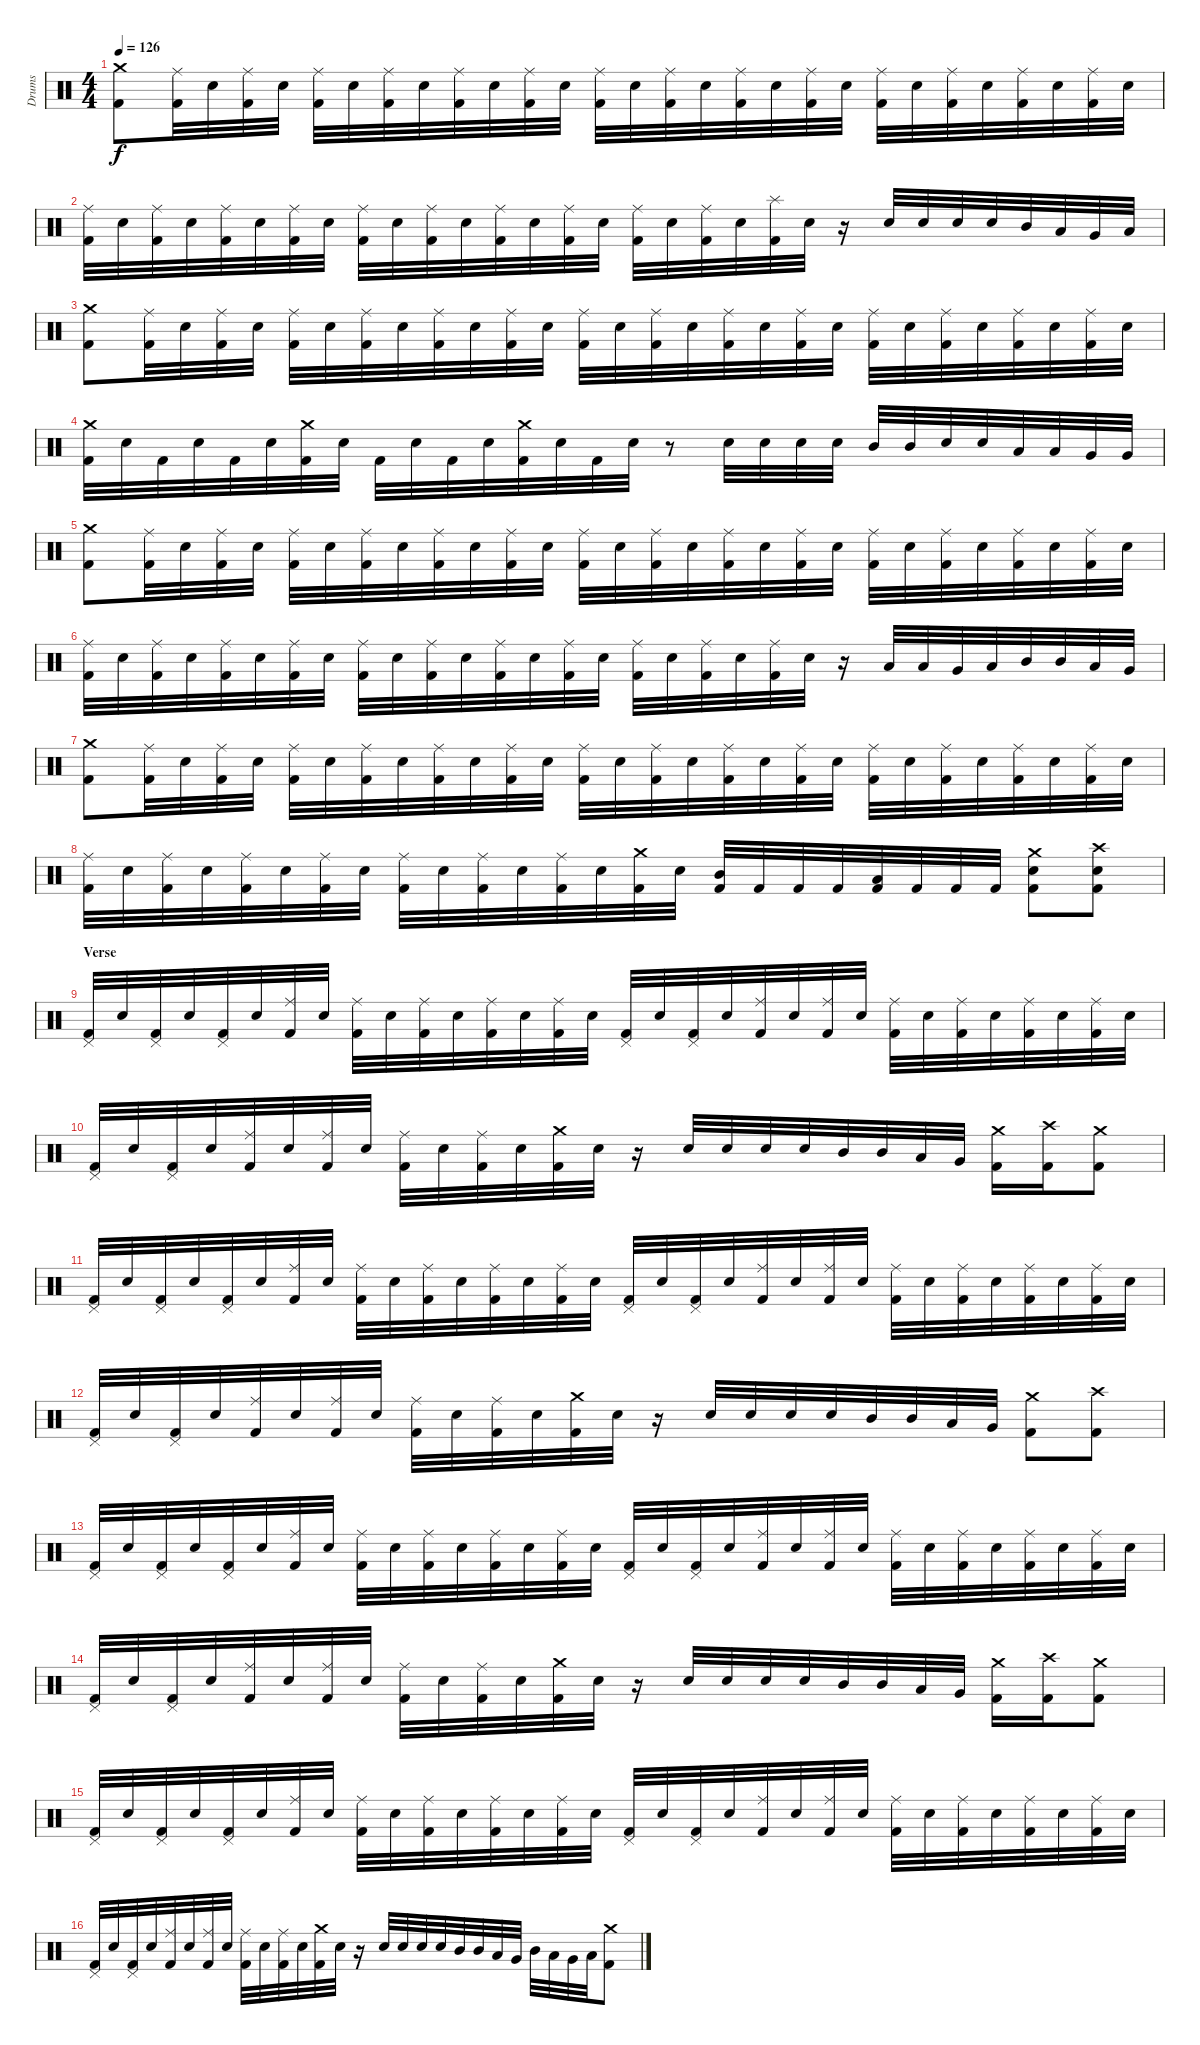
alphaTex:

\track ("Drums" "Drums") {instrument percussion}
\staff {score}
\articulation defaults
\ts (4 4)
\section ("" "")
\tempo 126
\clef neutral
\ks c
("Crash medium (hit)" "Kick (hit) 2").8{dy f} ("Ride (middle)" "Kick (hit) 2").32 "Electric Snare (hit)".32 ("Ride (middle)" "Kick (hit) 2").32 "Electric Snare (hit)".32 ("Ride (middle)" "Kick (hit) 2").32 "Electric Snare (hit)".32 ("Ride (middle)" "Kick (hit) 2").32 "Electric Snare (hit)".32 ("Ride (middle)" "Kick (hit) 2").32 "Electric Snare (hit)".32 ("Ride (middle)" "Kick (hit) 2").32 "Electric Snare (hit)".32 ("Ride (middle)" "Kick (hit) 2").32 "Electric Snare (hit)".32 ("Ride (middle)" "Kick (hit) 2").32 "Electric Snare (hit)".32 ("Ride (middle)" "Kick (hit) 2").32 "Electric Snare (hit)".32 ("Ride (middle)" "Kick (hit) 2").32 "Electric Snare (hit)".32 ("Ride (middle)" "Kick (hit) 2").32 "Electric Snare (hit)".32 ("Ride (middle)" "Kick (hit) 2").32 "Electric Snare (hit)".32 ("Ride (middle)" "Kick (hit) 2").32 "Electric Snare (hit)".32 ("Ride (middle)" "Kick (hit) 2").32 "Electric Snare (hit)".32 |
("Ride (middle)" "Kick (hit) 2").32 "Electric Snare (hit)".32 ("Ride (middle)" "Kick (hit) 2").32 "Electric Snare (hit)".32 ("Ride (middle)" "Kick (hit) 2").32 "Electric Snare (hit)".32 ("Ride (middle)" "Kick (hit) 2").32 "Electric Snare (hit)".32 ("Ride (middle)" "Kick (hit) 2").32 "Electric Snare (hit)".32 ("Ride (middle)" "Kick (hit) 2").32 "Electric Snare (hit)".32 ("Ride (middle)" "Kick (hit) 2").32 "Electric Snare (hit)".32 ("Ride (middle)" "Kick (hit) 2").32 "Electric Snare (hit)".32 ("Ride (middle)" "Kick (hit) 2").32 "Electric Snare (hit)".32 ("Ride (middle)" "Kick (hit) 2").32 "Electric Snare (hit)".32 ("Splash (hit)" "Kick (hit) 2").32 "Electric Snare (hit)".32 r.16 "Electric Snare (hit)".32 "Electric Snare (hit)".32 "Electric Snare (hit)".32 "Electric Snare (hit)".32 "Mid Tom (hit)".32 "Low Tom (hit)".32 "Very Low Tom (hit)".32 "Low Floor Tom (hit)".32 |
("Crash medium (hit)" "Kick (hit) 2").8 ("Ride (middle)" "Kick (hit) 2").32 "Electric Snare (hit)".32 ("Ride (middle)" "Kick (hit) 2").32 "Electric Snare (hit)".32 ("Ride (middle)" "Kick (hit) 2").32 "Electric Snare (hit)".32 ("Ride (middle)" "Kick (hit) 2").32 "Electric Snare (hit)".32 ("Ride (middle)" "Kick (hit) 2").32 "Electric Snare (hit)".32 ("Ride (middle)" "Kick (hit) 2").32 "Electric Snare (hit)".32 ("Ride (middle)" "Kick (hit) 2").32 "Electric Snare (hit)".32 ("Ride (middle)" "Kick (hit) 2").32 "Electric Snare (hit)".32 ("Ride (middle)" "Kick (hit) 2").32 "Electric Snare (hit)".32 ("Ride (middle)" "Kick (hit) 2").32 "Electric Snare (hit)".32 ("Ride (middle)" "Kick (hit) 2").32 "Electric Snare (hit)".32 ("Ride (middle)" "Kick (hit) 2").32 "Electric Snare (hit)".32 ("Ride (middle)" "Kick (hit) 2").32 "Electric Snare (hit)".32 ("Ride (middle)" "Kick (hit) 2").32 "Electric Snare (hit)".32 |
("Crash medium (hit)" "Kick (hit) 2").32 "Electric Snare (hit)".32 "Kick (hit) 2".32 "Electric Snare (hit)".32 "Kick (hit) 2".32 "Electric Snare (hit)".32 ("Crash medium (hit)" "Kick (hit) 2").32 "Electric Snare (hit)".32 "Kick (hit) 2".32 "Electric Snare (hit)".32 "Kick (hit) 2".32 "Electric Snare (hit)".32 ("Crash medium (hit)" "Kick (hit) 2").32 "Electric Snare (hit)".32 "Kick (hit) 2".32 "Electric Snare (hit)".32 r.8 "Electric Snare (hit)".32 "Electric Snare (hit)".32 "Electric Snare (hit)".32 "Electric Snare (hit)".32 "Mid Tom (hit)".32 "Mid Tom (hit)".32 "Electric Snare (hit)".32 "Electric Snare (hit)".32 "Low Tom (hit)".32 "Low Tom (hit)".32 "Very Low Tom (hit)".32 "Very Low Tom (hit)".32 |
("Crash medium (hit)" "Kick (hit) 2").8 ("Ride (middle)" "Kick (hit) 2").32 "Electric Snare (hit)".32 ("Ride (middle)" "Kick (hit) 2").32 "Electric Snare (hit)".32 ("Ride (middle)" "Kick (hit) 2").32 "Electric Snare (hit)".32 ("Ride (middle)" "Kick (hit) 2").32 "Electric Snare (hit)".32 ("Ride (middle)" "Kick (hit) 2").32 "Electric Snare (hit)".32 ("Ride (middle)" "Kick (hit) 2").32 "Electric Snare (hit)".32 ("Ride (middle)" "Kick (hit) 2").32 "Electric Snare (hit)".32 ("Ride (middle)" "Kick (hit) 2").32 "Electric Snare (hit)".32 ("Ride (middle)" "Kick (hit) 2").32 "Electric Snare (hit)".32 ("Ride (middle)" "Kick (hit) 2").32 "Electric Snare (hit)".32 ("Ride (middle)" "Kick (hit) 2").32 "Electric Snare (hit)".32 ("Ride (middle)" "Kick (hit) 2").32 "Electric Snare (hit)".32 ("Ride (middle)" "Kick (hit) 2").32 "Electric Snare (hit)".32 ("Ride (middle)" "Kick (hit) 2").32 "Electric Snare (hit)".32 |
("Ride (middle)" "Kick (hit) 2").32 "Electric Snare (hit)".32 ("Ride (middle)" "Kick (hit) 2").32 "Electric Snare (hit)".32 ("Ride (middle)" "Kick (hit) 2").32 "Electric Snare (hit)".32 ("Ride (middle)" "Kick (hit) 2").32 "Electric Snare (hit)".32 ("Ride (middle)" "Kick (hit) 2").32 "Electric Snare (hit)".32 ("Ride (middle)" "Kick (hit) 2").32 "Electric Snare (hit)".32 ("Ride (middle)" "Kick (hit) 2").32 "Electric Snare (hit)".32 ("Ride (middle)" "Kick (hit) 2").32 "Electric Snare (hit)".32 ("Ride (middle)" "Kick (hit) 2").32 "Electric Snare (hit)".32 ("Ride (middle)" "Kick (hit) 2").32 "Electric Snare (hit)".32 ("Ride (middle)" "Kick (hit) 2").32 "Electric Snare (hit)".32 r.16 "Low Tom (hit)".32 "Low Tom (hit)".32 "Very Low Tom (hit)".32 "Low Floor Tom (hit)".32 "Mid Tom (hit)".32 "Mid Tom (hit)".32 "Low Tom (hit)".32 "Very Low Tom (hit)".32 |
("Crash medium (hit)" "Kick (hit) 2").8 ("Ride (middle)" "Kick (hit) 2").32 "Electric Snare (hit)".32 ("Ride (middle)" "Kick (hit) 2").32 "Electric Snare (hit)".32 ("Ride (middle)" "Kick (hit) 2").32 "Electric Snare (hit)".32 ("Ride (middle)" "Kick (hit) 2").32 "Electric Snare (hit)".32 ("Ride (middle)" "Kick (hit) 2").32 "Electric Snare (hit)".32 ("Ride (middle)" "Kick (hit) 2").32 "Electric Snare (hit)".32 ("Ride (middle)" "Kick (hit) 2").32 "Electric Snare (hit)".32 ("Ride (middle)" "Kick (hit) 2").32 "Electric Snare (hit)".32 ("Ride (middle)" "Kick (hit) 2").32 "Electric Snare (hit)".32 ("Ride (middle)" "Kick (hit) 2").32 "Electric Snare (hit)".32 ("Ride (middle)" "Kick (hit) 2").32 "Electric Snare (hit)".32 ("Ride (middle)" "Kick (hit) 2").32 "Electric Snare (hit)".32 ("Ride (middle)" "Kick (hit) 2").32 "Electric Snare (hit)".32 ("Ride (middle)" "Kick (hit) 2").32 "Electric Snare (hit)".32 |
("Ride (middle)" "Kick (hit) 2").32 "Electric Snare (hit)".32 ("Ride (middle)" "Kick (hit) 2").32 "Electric Snare (hit)".32 ("Ride (middle)" "Kick (hit) 2").32 "Electric Snare (hit)".32 ("Ride (middle)" "Kick (hit) 2").32 "Electric Snare (hit)".32 ("Ride (middle)" "Kick (hit) 2").32 "Electric Snare (hit)".32 ("Ride (middle)" "Kick (hit) 2").32 "Electric Snare (hit)".32 ("Ride (middle)" "Kick (hit) 2").32 "Electric Snare (hit)".32 ("Crash medium (hit)" "Kick (hit) 2").32 "Electric Snare (hit)".32 ("Mid Tom (hit)" "Kick (hit) 2").32 "Kick (hit) 2".32 "Kick (hit) 2".32 "Kick (hit) 2".32 ("Low Tom (hit)" "Kick (hit) 2").32 "Kick (hit) 2".32 "Kick (hit) 2".32 "Kick (hit) 2".32 ("Crash medium (hit)" "Electric Snare (hit)" "Kick (hit) 2").8 ("Crash high (hit)" "Electric Snare (hit)" "Kick (hit) 2").8 |
\section ("" "Verse")
("Pedal Hi-Hat (hit)" "Kick (hit) 2").32 "Electric Snare (hit)".32 ("Pedal Hi-Hat (hit)" "Kick (hit) 2").32 "Electric Snare (hit)".32 ("Pedal Hi-Hat (hit)" "Kick (hit) 2").32 "Electric Snare (hit)".32 ("Ride (middle)" "Kick (hit) 2").32 "Electric Snare (hit)".32 ("Ride (middle)" "Kick (hit) 2").32 "Electric Snare (hit)".32 ("Ride (middle)" "Kick (hit) 2").32 "Electric Snare (hit)".32 ("Ride (middle)" "Kick (hit) 2").32 "Electric Snare (hit)".32 ("Ride (middle)" "Kick (hit) 2").32 "Electric Snare (hit)".32 ("Pedal Hi-Hat (hit)" "Kick (hit) 2").32 "Electric Snare (hit)".32 ("Pedal Hi-Hat (hit)" "Kick (hit) 2").32 "Electric Snare (hit)".32 ("Ride (middle)" "Kick (hit) 2").32 "Electric Snare (hit)".32 ("Ride (middle)" "Kick (hit) 2").32 "Electric Snare (hit)".32 ("Ride (middle)" "Kick (hit) 2").32 "Electric Snare (hit)".32 ("Ride (middle)" "Kick (hit) 2").32 "Electric Snare (hit)".32 ("Ride (middle)" "Kick (hit) 2").32 "Electric Snare (hit)".32 ("Ride (middle)" "Kick (hit) 2").32 "Electric Snare (hit)".32 |
("Pedal Hi-Hat (hit)" "Kick (hit) 2").32 "Electric Snare (hit)".32 ("Pedal Hi-Hat (hit)" "Kick (hit) 2").32 "Electric Snare (hit)".32 ("Ride (middle)" "Kick (hit) 2").32 "Electric Snare (hit)".32 ("Ride (middle)" "Kick (hit) 2").32 "Electric Snare (hit)".32 ("Ride (middle)" "Kick (hit) 2").32 "Electric Snare (hit)".32 ("Ride (middle)" "Kick (hit) 2").32 "Electric Snare (hit)".32 ("Crash medium (hit)" "Kick (hit) 2").32 "Electric Snare (hit)".32 r.16 "Electric Snare (hit)".32 "Electric Snare (hit)".32 "Electric Snare (hit)".32 "Electric Snare (hit)".32 "Mid Tom (hit)".32 "Mid Tom (hit)".32 "Low Tom (hit)".32 "Very Low Tom (hit)".32 ("Crash medium (hit)" "Kick (hit) 2").16 ("Crash high (hit)" "Kick (hit) 2").16 ("Crash medium (hit)" "Kick (hit) 2").8 |
("Pedal Hi-Hat (hit)" "Kick (hit) 2").32 "Electric Snare (hit)".32 ("Pedal Hi-Hat (hit)" "Kick (hit) 2").32 "Electric Snare (hit)".32 ("Pedal Hi-Hat (hit)" "Kick (hit) 2").32 "Electric Snare (hit)".32 ("Ride (middle)" "Kick (hit) 2").32 "Electric Snare (hit)".32 ("Ride (middle)" "Kick (hit) 2").32 "Electric Snare (hit)".32 ("Ride (middle)" "Kick (hit) 2").32 "Electric Snare (hit)".32 ("Ride (middle)" "Kick (hit) 2").32 "Electric Snare (hit)".32 ("Ride (middle)" "Kick (hit) 2").32 "Electric Snare (hit)".32 ("Pedal Hi-Hat (hit)" "Kick (hit) 2").32 "Electric Snare (hit)".32 ("Pedal Hi-Hat (hit)" "Kick (hit) 2").32 "Electric Snare (hit)".32 ("Ride (middle)" "Kick (hit) 2").32 "Electric Snare (hit)".32 ("Ride (middle)" "Kick (hit) 2").32 "Electric Snare (hit)".32 ("Ride (middle)" "Kick (hit) 2").32 "Electric Snare (hit)".32 ("Ride (middle)" "Kick (hit) 2").32 "Electric Snare (hit)".32 ("Ride (middle)" "Kick (hit) 2").32 "Electric Snare (hit)".32 ("Ride (middle)" "Kick (hit) 2").32 "Electric Snare (hit)".32 |
("Pedal Hi-Hat (hit)" "Kick (hit) 2").32 "Electric Snare (hit)".32 ("Pedal Hi-Hat (hit)" "Kick (hit) 2").32 "Electric Snare (hit)".32 ("Ride (middle)" "Kick (hit) 2").32 "Electric Snare (hit)".32 ("Ride (middle)" "Kick (hit) 2").32 "Electric Snare (hit)".32 ("Ride (middle)" "Kick (hit) 2").32 "Electric Snare (hit)".32 ("Ride (middle)" "Kick (hit) 2").32 "Electric Snare (hit)".32 ("Crash medium (hit)" "Kick (hit) 2").32 "Electric Snare (hit)".32 r.16 "Electric Snare (hit)".32 "Electric Snare (hit)".32 "Electric Snare (hit)".32 "Electric Snare (hit)".32 "Mid Tom (hit)".32 "Mid Tom (hit)".32 "Low Tom (hit)".32 "Very Low Tom (hit)".32 ("Crash medium (hit)" "Kick (hit) 2").8 ("Crash high (hit)" "Kick (hit) 2").8 |
("Pedal Hi-Hat (hit)" "Kick (hit) 2").32 "Electric Snare (hit)".32 ("Pedal Hi-Hat (hit)" "Kick (hit) 2").32 "Electric Snare (hit)".32 ("Pedal Hi-Hat (hit)" "Kick (hit) 2").32 "Electric Snare (hit)".32 ("Ride (middle)" "Kick (hit) 2").32 "Electric Snare (hit)".32 ("Ride (middle)" "Kick (hit) 2").32 "Electric Snare (hit)".32 ("Ride (middle)" "Kick (hit) 2").32 "Electric Snare (hit)".32 ("Ride (middle)" "Kick (hit) 2").32 "Electric Snare (hit)".32 ("Ride (middle)" "Kick (hit) 2").32 "Electric Snare (hit)".32 ("Pedal Hi-Hat (hit)" "Kick (hit) 2").32 "Electric Snare (hit)".32 ("Pedal Hi-Hat (hit)" "Kick (hit) 2").32 "Electric Snare (hit)".32 ("Ride (middle)" "Kick (hit) 2").32 "Electric Snare (hit)".32 ("Ride (middle)" "Kick (hit) 2").32 "Electric Snare (hit)".32 ("Ride (middle)" "Kick (hit) 2").32 "Electric Snare (hit)".32 ("Ride (middle)" "Kick (hit) 2").32 "Electric Snare (hit)".32 ("Ride (middle)" "Kick (hit) 2").32 "Electric Snare (hit)".32 ("Ride (middle)" "Kick (hit) 2").32 "Electric Snare (hit)".32 |
("Pedal Hi-Hat (hit)" "Kick (hit) 2").32 "Electric Snare (hit)".32 ("Pedal Hi-Hat (hit)" "Kick (hit) 2").32 "Electric Snare (hit)".32 ("Ride (middle)" "Kick (hit) 2").32 "Electric Snare (hit)".32 ("Ride (middle)" "Kick (hit) 2").32 "Electric Snare (hit)".32 ("Ride (middle)" "Kick (hit) 2").32 "Electric Snare (hit)".32 ("Ride (middle)" "Kick (hit) 2").32 "Electric Snare (hit)".32 ("Crash medium (hit)" "Kick (hit) 2").32 "Electric Snare (hit)".32 r.16 "Electric Snare (hit)".32 "Electric Snare (hit)".32 "Electric Snare (hit)".32 "Electric Snare (hit)".32 "Mid Tom (hit)".32 "Mid Tom (hit)".32 "Low Tom (hit)".32 "Very Low Tom (hit)".32 ("Crash medium (hit)" "Kick (hit) 2").16 ("Crash high (hit)" "Kick (hit) 2").16 ("Crash medium (hit)" "Kick (hit) 2").8 |
("Pedal Hi-Hat (hit)" "Kick (hit) 2").32 "Electric Snare (hit)".32 ("Pedal Hi-Hat (hit)" "Kick (hit) 2").32 "Electric Snare (hit)".32 ("Pedal Hi-Hat (hit)" "Kick (hit) 2").32 "Electric Snare (hit)".32 ("Ride (middle)" "Kick (hit) 2").32 "Electric Snare (hit)".32 ("Ride (middle)" "Kick (hit) 2").32 "Electric Snare (hit)".32 ("Ride (middle)" "Kick (hit) 2").32 "Electric Snare (hit)".32 ("Ride (middle)" "Kick (hit) 2").32 "Electric Snare (hit)".32 ("Ride (middle)" "Kick (hit) 2").32 "Electric Snare (hit)".32 ("Pedal Hi-Hat (hit)" "Kick (hit) 2").32 "Electric Snare (hit)".32 ("Pedal Hi-Hat (hit)" "Kick (hit) 2").32 "Electric Snare (hit)".32 ("Ride (middle)" "Kick (hit) 2").32 "Electric Snare (hit)".32 ("Ride (middle)" "Kick (hit) 2").32 "Electric Snare (hit)".32 ("Ride (middle)" "Kick (hit) 2").32 "Electric Snare (hit)".32 ("Ride (middle)" "Kick (hit) 2").32 "Electric Snare (hit)".32 ("Ride (middle)" "Kick (hit) 2").32 "Electric Snare (hit)".32 ("Ride (middle)" "Kick (hit) 2").32 "Electric Snare (hit)".32 |
("Pedal Hi-Hat (hit)" "Kick (hit) 2").32 "Electric Snare (hit)".32 ("Pedal Hi-Hat (hit)" "Kick (hit) 2").32 "Electric Snare (hit)".32 ("Ride (middle)" "Kick (hit) 2").32 "Electric Snare (hit)".32 ("Ride (middle)" "Kick (hit) 2").32 "Electric Snare (hit)".32 ("Ride (middle)" "Kick (hit) 2").32 "Electric Snare (hit)".32 ("Ride (middle)" "Kick (hit) 2").32 "Electric Snare (hit)".32 ("Crash medium (hit)" "Kick (hit) 2").32 "Electric Snare (hit)".32 r.16 "Electric Snare (hit)".32 "Electric Snare (hit)".32 "Electric Snare (hit)".32 "Electric Snare (hit)".32 "Mid Tom (hit)".32 "Mid Tom (hit)".32 "Low Tom (hit)".32 "Very Low Tom (hit)".32 "Mid Tom (hit)".32 "Low Tom (hit)".32 "Very Low Tom (hit)".32 "Low Floor Tom (hit)".32 ("Crash medium (hit)" "Kick (hit) 2").8
